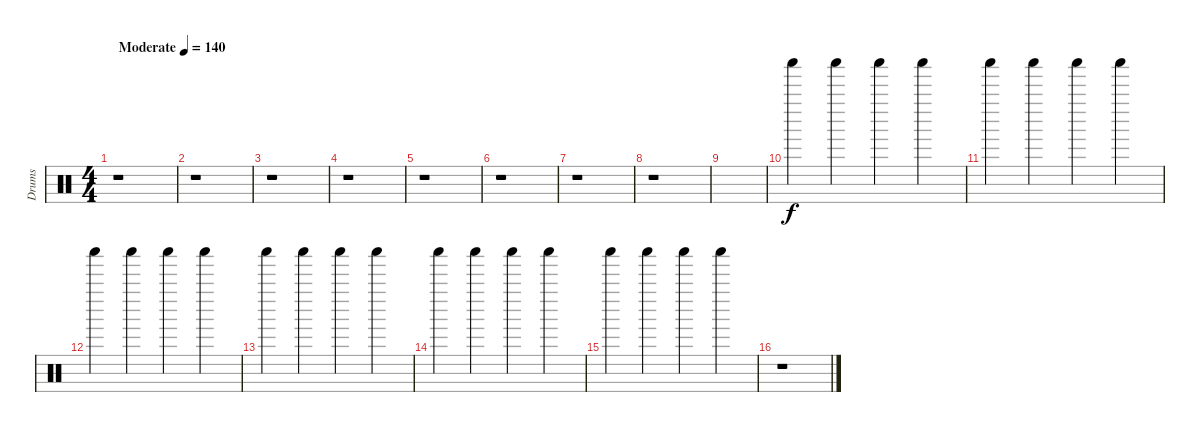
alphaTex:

\track ("Drums" "Drums") {instrument percussion}
\staff {score}
\articulation defaults
\ts (4 4)
\tempo (140 "Moderate")
\clef neutral
\ks c
r.1{dy f} |
r.1 |
r.1 |
r.1 |
r.1 |
r.1 |
r.1 |
r.1 |
|
"Shaker (hit)".4 "Shaker (hit)".4 "Shaker (hit)".4 "Shaker (hit)".4 |
"Shaker (hit)".4 "Shaker (hit)".4 "Shaker (hit)".4 "Shaker (hit)".4 |
"Shaker (hit)".4 "Shaker (hit)".4 "Shaker (hit)".4 "Shaker (hit)".4 |
"Shaker (hit)".4 "Shaker (hit)".4 "Shaker (hit)".4 "Shaker (hit)".4 |
"Shaker (hit)".4 "Shaker (hit)".4 "Shaker (hit)".4 "Shaker (hit)".4 |
"Shaker (hit)".4 "Shaker (hit)".4 "Shaker (hit)".4 "Shaker (hit)".4 |
r.1
